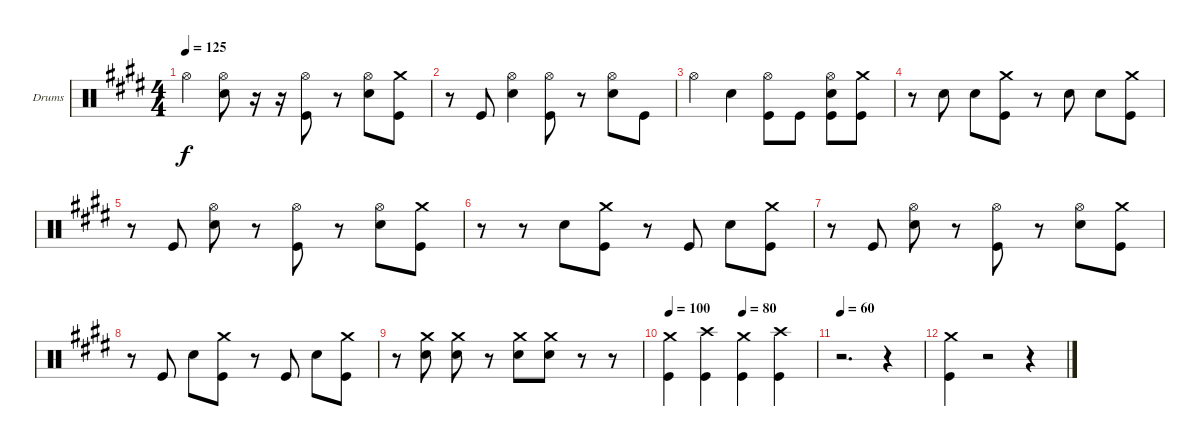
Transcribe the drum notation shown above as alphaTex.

\bracketExtendMode groupsimilarinstruments
\firstSystemTrackNameOrientation horizontal
\otherSystemsTrackNameOrientation horizontal
\track ("Drumkit" "Drums") {instrument percussion}
\staff {score}
\articulation defaults
\ts (4 4)
\tempo 125
\clef neutral
\ks e "Hi-Hat (open)".4{dy f}
("Hi-Hat (open)" "Snare (hit) 2").8 r.16 r.16 ("Hi-Hat (open)" "Kick (hit)").8 r.8 ("Hi-Hat (open)" "Snare (hit) 2").8 ("Crash medium (hit)" "Kick (hit)").8 |
r.8 "Kick (hit)".8 ("Hi-Hat (open)" "Snare (hit) 2").4 ("Hi-Hat (open)" "Kick (hit)").8 r.8 ("Hi-Hat (open)" "Snare (hit) 2").8 "Kick (hit)".8 |
"Hi-Hat (open)".4 "Snare (hit) 2".4 ("Hi-Hat (open)" "Kick (hit)").8 "Kick (hit)".8 ("Hi-Hat (open)" "Snare (hit) 2" "Kick (hit)").8 ("Crash medium (hit)" "Kick (hit)").8 |
r.8 "Snare (hit) 2".8 "Snare (hit) 2".8 ("Crash medium (hit)" "Kick (hit)").8 r.8 "Snare (hit) 2".8 "Snare (hit) 2".8 ("Crash medium (hit)" "Kick (hit)").8 |
r.8 "Kick (hit)".8 ("Hi-Hat (open)" "Snare (hit) 2").8 r.8 ("Hi-Hat (open)" "Kick (hit)").8 r.8 ("Hi-Hat (open)" "Snare (hit) 2").8 ("Crash medium (hit)" "Kick (hit)").8 |
r.8 r.8 "Snare (hit) 2".8 ("Crash medium (hit)" "Kick (hit)").8 r.8 "Kick (hit)".8 "Snare (hit) 2".8 ("Crash medium (hit)" "Kick (hit)").8 |
r.8 "Kick (hit)".8 ("Hi-Hat (open)" "Snare (hit) 2").8 r.8 ("Hi-Hat (open)" "Kick (hit)").8 r.8 ("Hi-Hat (open)" "Snare (hit) 2").8 ("Crash medium (hit)" "Kick (hit)").8 |
r.8 "Kick (hit)".8 "Snare (hit) 2".8 ("Crash medium (hit)" "Kick (hit)").8 r.8 "Kick (hit)".8 "Snare (hit) 2".8 ("Crash medium (hit)" "Kick (hit)").8 |
r.8 ("Crash medium (hit)" "Snare (hit) 2").8 ("Crash medium (hit)" "Snare (hit) 2").8 r.8 ("Crash medium (hit)" "Snare (hit) 2").8 ("Crash medium (hit)" "Snare (hit) 2").8 r.8 r.8 |
\tempo 100
\tempo (80 0.5)
("Crash medium (hit)" "Kick (hit)").4 ("Crash high (hit)" "Kick (hit)").4 ("Crash medium (hit)" "Kick (hit)").4 ("Crash high (hit)"{tr (57 16)} "Kick (hit)").4 |
\tempo 60
r.2{d} r.4 |
("Crash medium (hit)" "Kick (hit)").4 r.2 r.4
